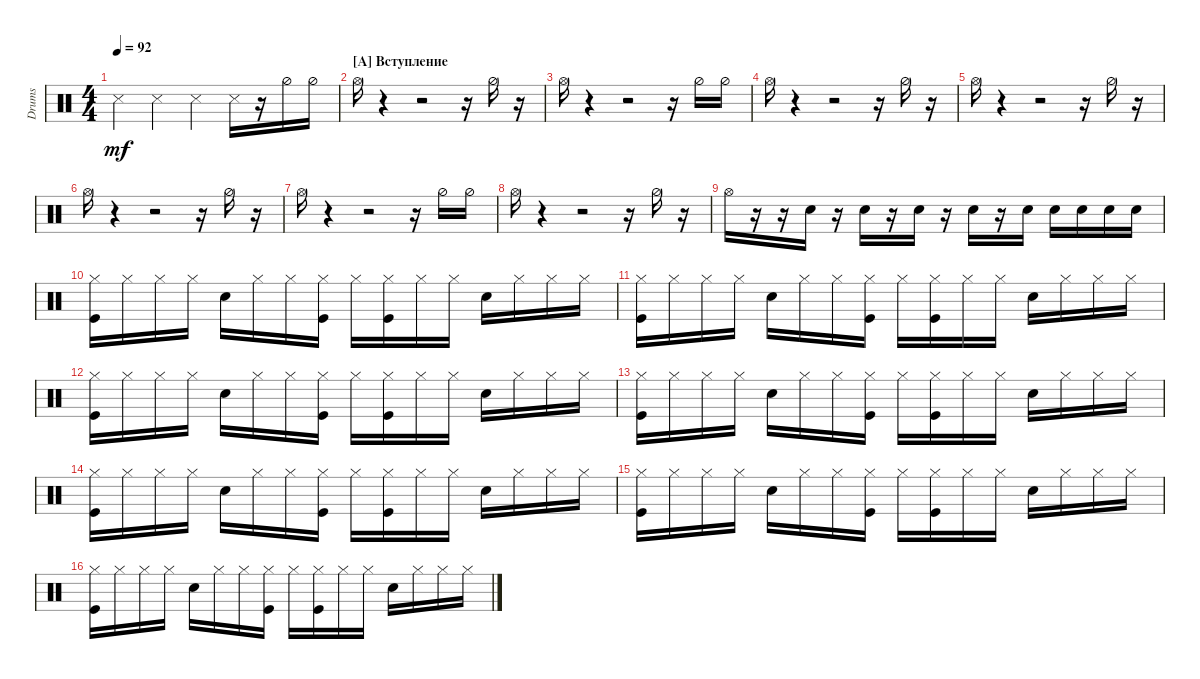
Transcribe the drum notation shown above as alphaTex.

\track ("Drumkit" "Drums") {instrument percussion}
\staff {score}
\articulation defaults
\ts (4 4)
\tempo 92
\clef neutral
\ks c "Snare (side stick) 3".4{dy mf} "Snare (side stick) 3".4 "Snare (side stick) 3".4 "Snare (side stick) 3".16
r.16 "Hi-Hat (half)".16 "Hi-Hat (half)".16 |
\section ("A" "Вступление")
\scale
0.472222 "Hi-Hat (open)".16 r.4 r.2 r.16 "Hi-Hat (half)".16 r.16 |
\scale
0.263889 "Hi-Hat (open)".16 r.4 r.2 r.16 "Hi-Hat (half)".16 "Hi-Hat (half)".16 |
\scale
0.263889 "Hi-Hat (open)".16 r.4 r.2 r.16 "Hi-Hat (half)".16 r.16 |
\scale
0.333333 "Hi-Hat (open)".16 r.4 r.2 r.16 "Hi-Hat (half)".16 r.16 |
\scale
0.333333 "Hi-Hat (open)".16 r.4 r.2 r.16 "Hi-Hat (half)".16 r.16 |
\scale
0.333333 "Hi-Hat (open)".16 r.4 r.2 r.16 "Hi-Hat (half)".16 "Hi-Hat (half)".16 |
"Hi-Hat (open)".16 r.4 r.2 r.16 "Hi-Hat (half)".16 r.16 |
"Hi-Hat (open)".16 r.16 r.16 "Snare (hit) 2".16 r.16 "Snare (hit) 2".16 r.16 "Snare (hit) 2".16 r.16 "Snare (hit) 2".16 r.16 "Snare (hit) 2".16 "Snare (hit) 2".16 "Snare (hit) 2".16 "Snare (hit) 2".16 "Snare (hit) 2".16 |
("Kick (hit)" "Hi-Hat (closed)").16 "Hi-Hat (closed)".16 "Hi-Hat (closed)".16 "Hi-Hat (closed)".16 "Snare (hit) 2".16 "Hi-Hat (closed)".16 "Hi-Hat (closed)".16 ("Hi-Hat (closed)" "Kick (hit)").16 "Hi-Hat (closed)".16 ("Hi-Hat (closed)" "Kick (hit)").16 "Hi-Hat (closed)".16 "Hi-Hat (closed)".16 "Snare (hit) 2".16 "Hi-Hat (closed)".16 "Hi-Hat (closed)".16 "Hi-Hat (closed)".16 |
("Kick (hit)" "Hi-Hat (closed)").16 "Hi-Hat (closed)".16 "Hi-Hat (closed)".16 "Hi-Hat (closed)".16 "Snare (hit) 2".16 "Hi-Hat (closed)".16 "Hi-Hat (closed)".16 ("Hi-Hat (closed)" "Kick (hit)").16 "Hi-Hat (closed)".16 ("Hi-Hat (closed)" "Kick (hit)").16 "Hi-Hat (closed)".16 "Hi-Hat (closed)".16 "Snare (hit) 2".16 "Hi-Hat (closed)".16 "Hi-Hat (closed)".16 "Hi-Hat (closed)".16 |
("Kick (hit)" "Hi-Hat (closed)").16 "Hi-Hat (closed)".16 "Hi-Hat (closed)".16 "Hi-Hat (closed)".16 "Snare (hit) 2".16 "Hi-Hat (closed)".16 "Hi-Hat (closed)".16 ("Hi-Hat (closed)" "Kick (hit)").16 "Hi-Hat (closed)".16 ("Hi-Hat (closed)" "Kick (hit)").16 "Hi-Hat (closed)".16 "Hi-Hat (closed)".16 "Snare (hit) 2".16 "Hi-Hat (closed)".16 "Hi-Hat (closed)".16 "Hi-Hat (closed)".16 |
("Kick (hit)" "Hi-Hat (closed)").16 "Hi-Hat (closed)".16 "Hi-Hat (closed)".16 "Hi-Hat (closed)".16 "Snare (hit) 2".16 "Hi-Hat (closed)".16 "Hi-Hat (closed)".16 ("Hi-Hat (closed)" "Kick (hit)").16 "Hi-Hat (closed)".16 ("Hi-Hat (closed)" "Kick (hit)").16 "Hi-Hat (closed)".16 "Hi-Hat (closed)".16 "Snare (hit) 2".16 "Hi-Hat (closed)".16 "Hi-Hat (closed)".16 "Hi-Hat (closed)".16 |
("Kick (hit)" "Hi-Hat (closed)").16 "Hi-Hat (closed)".16 "Hi-Hat (closed)".16 "Hi-Hat (closed)".16 "Snare (hit) 2".16 "Hi-Hat (closed)".16 "Hi-Hat (closed)".16 ("Hi-Hat (closed)" "Kick (hit)").16 "Hi-Hat (closed)".16 ("Hi-Hat (closed)" "Kick (hit)").16 "Hi-Hat (closed)".16 "Hi-Hat (closed)".16 "Snare (hit) 2".16 "Hi-Hat (closed)".16 "Hi-Hat (closed)".16 "Hi-Hat (closed)".16 |
("Kick (hit)" "Hi-Hat (closed)").16 "Hi-Hat (closed)".16 "Hi-Hat (closed)".16 "Hi-Hat (closed)".16 "Snare (hit) 2".16 "Hi-Hat (closed)".16 "Hi-Hat (closed)".16 ("Hi-Hat (closed)" "Kick (hit)").16 "Hi-Hat (closed)".16 ("Hi-Hat (closed)" "Kick (hit)").16 "Hi-Hat (closed)".16 "Hi-Hat (closed)".16 "Snare (hit) 2".16 "Hi-Hat (closed)".16 "Hi-Hat (closed)".16 "Hi-Hat (closed)".16 |
("Kick (hit)" "Hi-Hat (closed)").16 "Hi-Hat (closed)".16 "Hi-Hat (closed)".16 "Hi-Hat (closed)".16 "Snare (hit) 2".16 "Hi-Hat (closed)".16 "Hi-Hat (closed)".16 ("Hi-Hat (closed)" "Kick (hit)").16 "Hi-Hat (closed)".16 ("Hi-Hat (closed)" "Kick (hit)").16 "Hi-Hat (closed)".16 "Hi-Hat (closed)".16 "Snare (hit) 2".16 "Hi-Hat (closed)".16 "Hi-Hat (closed)".16 "Hi-Hat (closed)".16
